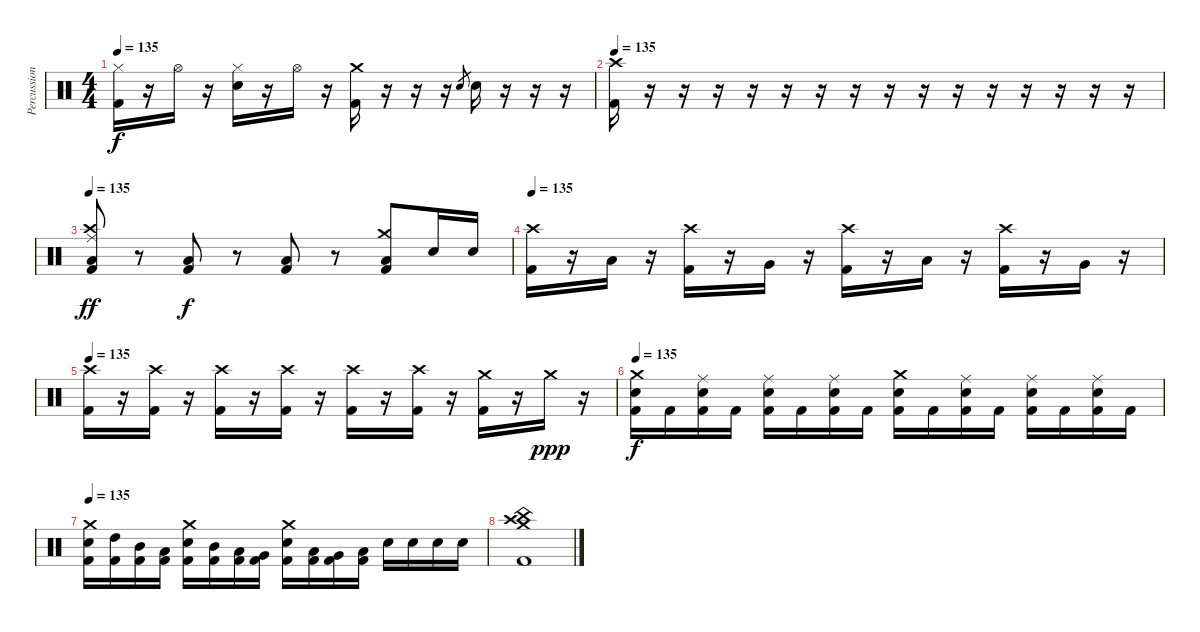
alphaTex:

\track ("Percussion" "Percussion") {instrument percussion}
\staff {score}
\articulation defaults
\ts (4 4)
\tempo 135
\clef neutral
\ks c
("Hi-Hat (closed)" "Kick (hit) 2").16{dy f} r.16 "Hi-Hat (open)".16 r.16 ("Hi-Hat (closed)" "Snare (hit) 2").16 r.16 "Hi-Hat (open)".16 r.16 ("Crash medium (hit)" "Kick (hit) 2").16 r.16 r.16 r.16 "Snare (hit) 2".8{gr} "Snare (hit) 2".16 r.16 r.16 r.16 |
\tempo 135
("Crash high (hit)" "Kick (hit) 2").16 r.16 r.16 r.16 r.16 r.16 r.16 r.16 r.16 r.16 r.16 r.16 r.16 r.16 r.16 r.16 |
\tempo 135
("Crash high (hit)" "Ride (middle)" "Low Floor Tom (hit)" "Kick (hit) 2").8{dy ff} r.8 ("Low Floor Tom (hit)" "Kick (hit) 2").8{dy f} r.8 ("Low Floor Tom (hit)" "Kick (hit) 2").8 r.8 ("Crash medium (hit)" "Low Floor Tom (hit)" "Kick (hit) 2").8 "Snare (hit) 2".16 "Snare (hit) 2".16 |
\tempo 135
("Crash high (hit)" "Kick (hit) 2").16 r.16 "Low Floor Tom (hit)".16 r.16 ("Crash high (hit)" "Kick (hit) 2").16 r.16 "Very Low Tom (hit)".16 r.16 ("Crash high (hit)" "Kick (hit) 2").16 r.16 "Low Floor Tom (hit)".16 r.16 ("Crash high (hit)" "Kick (hit) 2").16 r.16 "Very Low Tom (hit)".16 r.16 |
\tempo 135
("Crash high (hit)" "Kick (hit) 2").16 r.16 ("Crash high (hit)" "Kick (hit) 2").16 r.16 ("Crash high (hit)" "Kick (hit) 2").16 r.16 ("Crash high (hit)" "Kick (hit) 2").16 r.16 ("Crash high (hit)" "Kick (hit) 2").16 r.16 ("Crash high (hit)" "Kick (hit) 2").16 r.16 ("Crash medium (hit)" "Kick (hit) 2").16 r.16 "Crash medium (hit)".16{dy ppp} r.16 |
\tempo 135
("Crash medium (hit)" "Snare (hit) 2" "Kick (hit) 2").16{dy f} "Kick (hit) 2".16 ("Ride (middle)" "Snare (hit) 2" "Kick (hit) 2").16 "Kick (hit) 2".16 ("Ride (middle)" "Snare (hit) 2" "Kick (hit) 2").16 "Kick (hit) 2".16 ("Ride (middle)" "Snare (hit) 2" "Kick (hit) 2").16 "Kick (hit) 2".16 ("Crash medium (hit)" "Snare (hit) 2" "Kick (hit) 2").16 "Kick (hit) 2".16 ("Ride (middle)" "Snare (hit) 2" "Kick (hit) 2").16 "Kick (hit) 2".16 ("Ride (middle)" "Snare (hit) 2" "Kick (hit) 2").16 "Kick (hit) 2".16 ("Ride (middle)" "Snare (hit) 2" "Kick (hit) 2").16 "Kick (hit) 2".16 |
\tempo 135
("Crash medium (hit)" "Snare (hit) 2" "Kick (hit) 2").16 ("High Tom (hit)" "Kick (hit) 2").16 ("Mid Tom (hit)" "Kick (hit) 2").16 ("Low Tom (hit)" "Kick (hit) 2").16 ("Crash medium (hit)" "Snare (hit) 2" "Kick (hit) 2").16 ("Mid Tom (hit)" "Kick (hit) 2").16 ("Low Tom (hit)" "Kick (hit) 2").16 ("Very Low Tom (hit)" "Kick (hit) 2").16 ("Crash medium (hit)" "Snare (hit) 2" "Kick (hit) 2").16 ("Low Tom (hit)" "Kick (hit) 2").16 ("Very Low Tom (hit)" "Kick (hit) 2").16 ("Low Floor Tom (hit)" "Kick (hit) 2").16 "Snare (hit) 2".16 "Snare (hit) 2".16 "Snare (hit) 2".16 "Snare (hit) 2".16 |
("Crash high (hit)" "Crash medium (hit)" "China (hit)" "Kick (hit) 2").1
